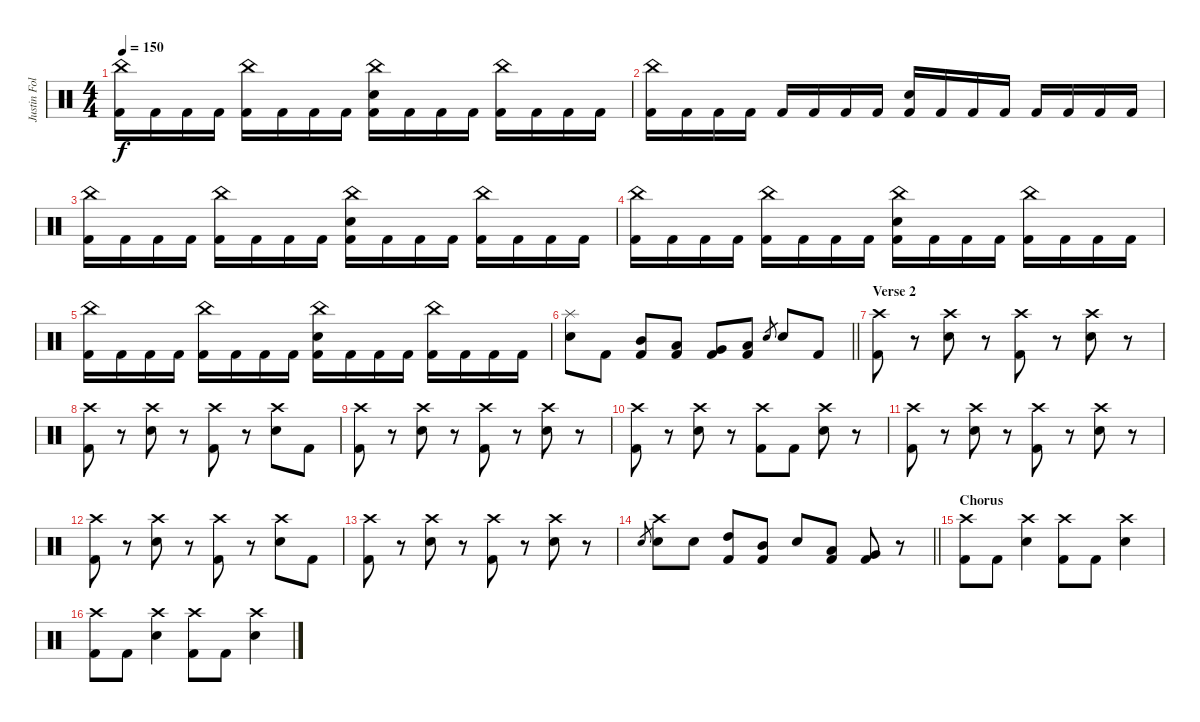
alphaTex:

\track ("Justin Foley" "Justin Fol") {instrument percussion}
\staff {score}
\articulation defaults
\ts (4 4)
\tempo 150
\clef neutral
\ks c
("China (hit)" "Kick (hit) 2").16{dy f} "Kick (hit) 2".16 "Kick (hit) 2".16 "Kick (hit) 2".16 ("China (hit)" "Kick (hit) 2").16 "Kick (hit) 2".16 "Kick (hit) 2".16 "Kick (hit) 2".16 ("China (hit)" "Snare (hit) 2" "Kick (hit) 2").16 "Kick (hit) 2".16 "Kick (hit) 2".16 "Kick (hit) 2".16 ("China (hit)" "Kick (hit) 2").16 "Kick (hit) 2".16 "Kick (hit) 2".16 "Kick (hit) 2".16 |
("China (hit)" "Kick (hit) 2").16 "Kick (hit) 2".16 "Kick (hit) 2".16 "Kick (hit) 2".16 "Kick (hit) 2".16 "Kick (hit) 2".16 "Kick (hit) 2".16 "Kick (hit) 2".16 ("Snare (hit) 2" "Kick (hit) 2").16 "Kick (hit) 2".16 "Kick (hit) 2".16 "Kick (hit) 2".16 "Kick (hit) 2".16 "Kick (hit) 2".16 "Kick (hit) 2".16 "Kick (hit) 2".16 |
("China (hit)" "Kick (hit) 2").16 "Kick (hit) 2".16 "Kick (hit) 2".16 "Kick (hit) 2".16 ("China (hit)" "Kick (hit) 2").16 "Kick (hit) 2".16 "Kick (hit) 2".16 "Kick (hit) 2".16 ("China (hit)" "Snare (hit) 2" "Kick (hit) 2").16 "Kick (hit) 2".16 "Kick (hit) 2".16 "Kick (hit) 2".16 ("China (hit)" "Kick (hit) 2").16 "Kick (hit) 2".16 "Kick (hit) 2".16 "Kick (hit) 2".16 |
("China (hit)" "Kick (hit) 2").16 "Kick (hit) 2".16 "Kick (hit) 2".16 "Kick (hit) 2".16 ("China (hit)" "Kick (hit) 2").16 "Kick (hit) 2".16 "Kick (hit) 2".16 "Kick (hit) 2".16 ("China (hit)" "Snare (hit) 2" "Kick (hit) 2").16 "Kick (hit) 2".16 "Kick (hit) 2".16 "Kick (hit) 2".16 ("China (hit)" "Kick (hit) 2").16 "Kick (hit) 2".16 "Kick (hit) 2".16 "Kick (hit) 2".16 |
("China (hit)" "Kick (hit) 2").16 "Kick (hit) 2".16 "Kick (hit) 2".16 "Kick (hit) 2".16 ("China (hit)" "Kick (hit) 2").16 "Kick (hit) 2".16 "Kick (hit) 2".16 "Kick (hit) 2".16 ("China (hit)" "Snare (hit) 2" "Kick (hit) 2").16 "Kick (hit) 2".16 "Kick (hit) 2".16 "Kick (hit) 2".16 ("China (hit)" "Kick (hit) 2").16 "Kick (hit) 2".16 "Kick (hit) 2".16 "Kick (hit) 2".16 |
\barLineRight lightlight
("Splash (hit)" "Snare (hit) 2").8 "Kick (hit) 2".8 ("Mid Tom (hit)" "Kick (hit) 2").8 ("Low Tom (hit)" "Kick (hit) 2").8 ("Very Low Tom (hit)" "Kick (hit) 2").8 ("Low Floor Tom (hit)" "Kick (hit) 2").8 "Snare (hit) 2".8{gr} "Snare (hit) 2".8 "Kick (hit) 2".8 |
\section ("" "Verse 2")
("Crash high (hit)" "Kick (hit) 2").8 r.8 ("Crash high (hit)" "Snare (hit) 2").8 r.8 ("Crash high (hit)" "Kick (hit) 2").8 r.8 ("Crash high (hit)" "Snare (hit) 2").8 r.8 |
("Crash high (hit)" "Kick (hit) 2").8 r.8 ("Crash high (hit)" "Snare (hit) 2").8 r.8 ("Crash high (hit)" "Kick (hit) 2").8 r.8 ("Crash high (hit)" "Snare (hit) 2").8 "Kick (hit) 2".8 |
("Crash high (hit)" "Kick (hit) 2").8 r.8 ("Crash high (hit)" "Snare (hit) 2").8 r.8 ("Crash high (hit)" "Kick (hit) 2").8 r.8 ("Crash high (hit)" "Snare (hit) 2").8 r.8 |
("Crash high (hit)" "Kick (hit) 2").8 r.8 ("Crash high (hit)" "Snare (hit) 2").8 r.8 ("Crash high (hit)" "Kick (hit) 2").8 "Kick (hit) 2".8 ("Crash high (hit)" "Snare (hit) 2").8 r.8 |
("Crash high (hit)" "Kick (hit) 2").8 r.8 ("Crash high (hit)" "Snare (hit) 2").8 r.8 ("Crash high (hit)" "Kick (hit) 2").8 r.8 ("Crash high (hit)" "Snare (hit) 2").8 r.8 |
("Crash high (hit)" "Kick (hit) 2").8 r.8 ("Crash high (hit)" "Snare (hit) 2").8 r.8 ("Crash high (hit)" "Kick (hit) 2").8 r.8 ("Crash high (hit)" "Snare (hit) 2").8 "Kick (hit) 2".8 |
("Crash high (hit)" "Kick (hit) 2").8 r.8 ("Crash high (hit)" "Snare (hit) 2").8 r.8 ("Crash high (hit)" "Kick (hit) 2").8 r.8 ("Crash high (hit)" "Snare (hit) 2").8 r.8 |
\barLineRight lightlight "Snare (hit) 2".8{gr}
("Crash high (hit)" "Snare (hit) 2").8 "Snare (hit) 2".8 ("High Tom (hit)" "Kick (hit) 2").8 ("Mid Tom (hit)" "Kick (hit) 2").8 "Snare (hit) 2".8 ("Low Tom (hit)" "Kick (hit) 2").8 ("Very Low Tom (hit)" "Kick (hit) 2").8 r.8 |
\section ("" "Chorus")
("Crash high (hit)" "Kick (hit) 2").8 "Kick (hit) 2".8 ("Crash high (hit)" "Snare (hit) 2").4 ("Crash high (hit)" "Kick (hit) 2").8 "Kick (hit) 2".8 ("Crash high (hit)" "Snare (hit) 2").4 |
("Crash high (hit)" "Kick (hit) 2").8 "Kick (hit) 2".8 ("Crash high (hit)" "Snare (hit) 2").4 ("Crash high (hit)" "Kick (hit) 2").8 "Kick (hit) 2".8 ("Crash high (hit)" "Snare (hit) 2").4
